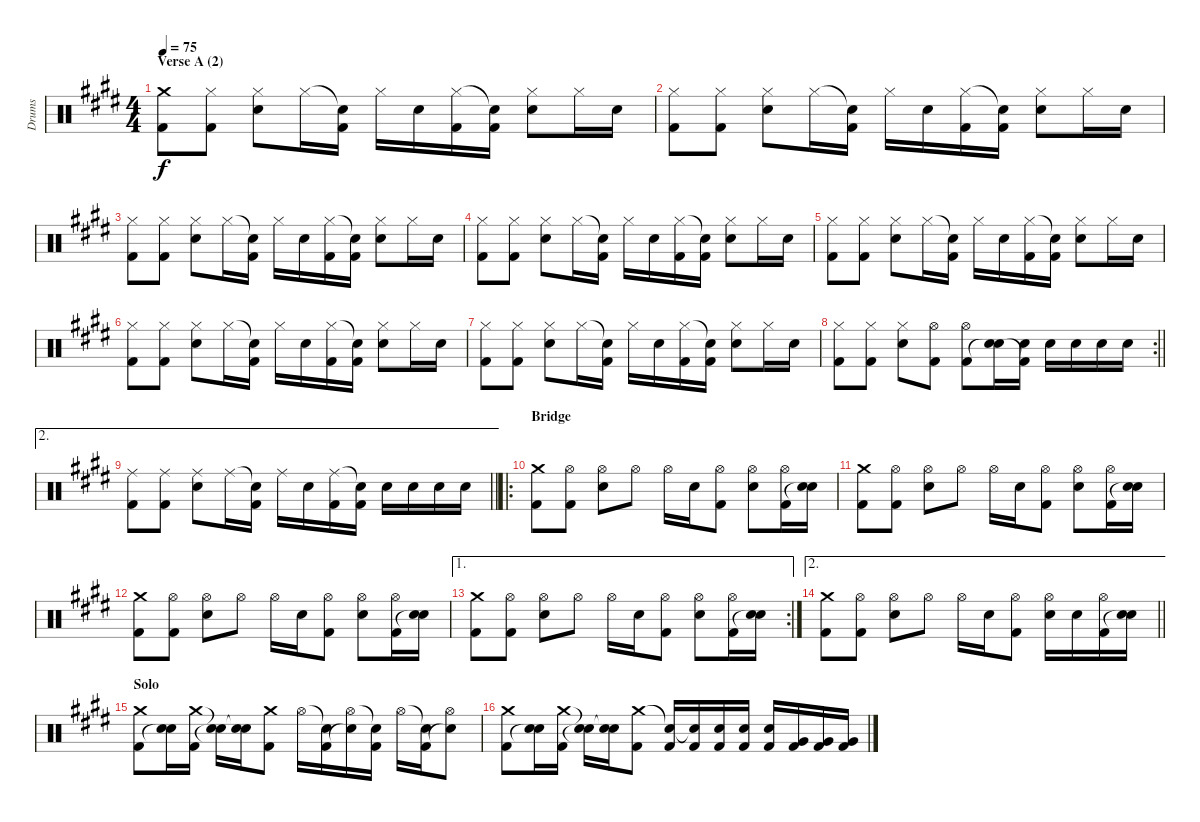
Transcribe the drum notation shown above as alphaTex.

\track ("Drums" "Drums") {instrument percussion}
\staff {score}
\articulation defaults
\ts (4 4)
\section ("" "Verse A (2)")
\tempo 75
\clef neutral
\ks c#minor
("Crash medium (hit)" "Kick (hit) 2").8{dy f} ("Hi-Hat (closed)" "Kick (hit) 2").8 ("Hi-Hat (closed)" "Electric Snare (hit)").8 "Hi-Hat (closed)".16 ("Snare (hit)"{t} "Kick (hit) 2").16 "Hi-Hat (closed)".16 "Electric Snare (hit)".16 ("Hi-Hat (closed)" "Kick (hit) 2").16 ("Snare (hit)"{t} "Kick (hit) 2").16 ("Hi-Hat (closed)" "Electric Snare (hit)").8 "Hi-Hat (closed)".16 "Electric Snare (hit)".16 |
("Hi-Hat (closed)" "Kick (hit) 2").8 ("Hi-Hat (closed)" "Kick (hit) 2").8 ("Hi-Hat (closed)" "Electric Snare (hit)").8 "Hi-Hat (closed)".16 ("Snare (hit)"{t} "Kick (hit) 2").16 "Hi-Hat (closed)".16 "Electric Snare (hit)".16 ("Hi-Hat (closed)" "Kick (hit) 2").16 ("Snare (hit)"{t} "Kick (hit) 2").16 ("Hi-Hat (closed)" "Electric Snare (hit)").8 "Hi-Hat (closed)".16 "Electric Snare (hit)".16 |
("Hi-Hat (closed)" "Kick (hit) 2").8 ("Hi-Hat (closed)" "Kick (hit) 2").8 ("Hi-Hat (closed)" "Electric Snare (hit)").8 "Hi-Hat (closed)".16 ("Snare (hit)"{t} "Kick (hit) 2").16 "Hi-Hat (closed)".16 "Electric Snare (hit)".16 ("Hi-Hat (closed)" "Kick (hit) 2").16 ("Snare (hit)"{t} "Kick (hit) 2").16 ("Hi-Hat (closed)" "Electric Snare (hit)").8 "Hi-Hat (closed)".16 "Electric Snare (hit)".16 |
("Hi-Hat (closed)" "Kick (hit) 2").8 ("Hi-Hat (closed)" "Kick (hit) 2").8 ("Hi-Hat (closed)" "Electric Snare (hit)").8 "Hi-Hat (closed)".16 ("Snare (hit)"{t} "Kick (hit) 2").16 "Hi-Hat (closed)".16 "Electric Snare (hit)".16 ("Hi-Hat (closed)" "Kick (hit) 2").16 ("Snare (hit)"{t} "Kick (hit) 2").16 ("Hi-Hat (closed)" "Electric Snare (hit)").8 "Hi-Hat (closed)".16 "Electric Snare (hit)".16 |
("Hi-Hat (closed)" "Kick (hit) 2").8 ("Hi-Hat (closed)" "Kick (hit) 2").8 ("Hi-Hat (closed)" "Electric Snare (hit)").8 "Hi-Hat (closed)".16 ("Snare (hit)"{t} "Kick (hit) 2").16 "Hi-Hat (closed)".16 "Electric Snare (hit)".16 ("Hi-Hat (closed)" "Kick (hit) 2").16 ("Snare (hit)"{t} "Kick (hit) 2").16 ("Hi-Hat (closed)" "Electric Snare (hit)").8 "Hi-Hat (closed)".16 "Electric Snare (hit)".16 |
("Hi-Hat (closed)" "Kick (hit) 2").8 ("Hi-Hat (closed)" "Kick (hit) 2").8 ("Hi-Hat (closed)" "Electric Snare (hit)").8 "Hi-Hat (closed)".16 ("Snare (hit)"{t} "Kick (hit) 2").16 "Hi-Hat (closed)".16 "Electric Snare (hit)".16 ("Hi-Hat (closed)" "Kick (hit) 2").16 ("Snare (hit)"{t} "Kick (hit) 2").16 ("Hi-Hat (closed)" "Electric Snare (hit)").8 "Hi-Hat (closed)".16 "Electric Snare (hit)".16 |
("Hi-Hat (closed)" "Kick (hit) 2").8 ("Hi-Hat (closed)" "Kick (hit) 2").8 ("Hi-Hat (closed)" "Electric Snare (hit)").8 "Hi-Hat (closed)".16 ("Snare (hit)"{t} "Kick (hit) 2").16 "Hi-Hat (closed)".16 "Electric Snare (hit)".16 ("Hi-Hat (closed)" "Kick (hit) 2").16 ("Snare (hit)"{t} "Kick (hit) 2").16 ("Hi-Hat (closed)" "Electric Snare (hit)").8 "Hi-Hat (closed)".16 "Electric Snare (hit)".16 |
\rc 2
\barLineRight lightlight
("Hi-Hat (closed)" "Kick (hit) 2").8 ("Hi-Hat (closed)" "Kick (hit) 2").8 ("Hi-Hat (closed)" "Electric Snare (hit)").8 ("Hi-Hat (open)" "Kick (hit) 2").8 ("Hi-Hat (open)" "Kick (hit) 2").8 ("Electric Snare (hit)" "Snare (hit)"{t}).16 ("Electric Snare (hit)" "Kick (hit) 2"{t}).16 "Electric Snare (hit)".16 "Electric Snare (hit)".16 "Electric Snare (hit)".16 "Electric Snare (hit)".16 |
\ae 2
\barLineRight lightlight
("Ride (middle)" "Kick (hit) 2").8 ("Ride (middle)" "Kick (hit) 2").8 ("Ride (middle)" "Electric Snare (hit)").8 "Ride (middle)".16 ("Snare (hit)"{t} "Kick (hit) 2").16 "Ride (middle)".16 "Electric Snare (hit)".16 ("Ride (middle)" "Kick (hit) 2").16 ("Snare (hit)"{t} "Kick (hit) 2").16 "Electric Snare (hit)".16 "Electric Snare (hit)".16 "Electric Snare (hit)".16 "Electric Snare (hit)".16 |
\ro
\section ("" "Bridge")
("Crash medium (hit)" "Kick (hit) 2").8 ("Hi-Hat (open)" "Kick (hit) 2").8 ("Hi-Hat (open)" "Electric Snare (hit)").8 "Hi-Hat (open)".8 "Hi-Hat (open)".16 "Electric Snare (hit)".16 ("Hi-Hat (open)" "Kick (hit) 2").8 ("Hi-Hat (open)" "Electric Snare (hit)").8 ("Hi-Hat (open)" "Kick (hit) 2").16 ("Electric Snare (hit)" "Snare (hit)"{t}).16 |
("Crash medium (hit)" "Kick (hit) 2").8 ("Hi-Hat (open)" "Kick (hit) 2").8 ("Hi-Hat (open)" "Electric Snare (hit)").8 "Hi-Hat (open)".8 "Hi-Hat (open)".16 "Electric Snare (hit)".16 ("Hi-Hat (open)" "Kick (hit) 2").8 ("Hi-Hat (open)" "Electric Snare (hit)").8 ("Hi-Hat (open)" "Kick (hit) 2").16 ("Electric Snare (hit)" "Snare (hit)"{t}).16 |
("Crash medium (hit)" "Kick (hit) 2").8 ("Hi-Hat (open)" "Kick (hit) 2").8 ("Hi-Hat (open)" "Electric Snare (hit)").8 "Hi-Hat (open)".8 "Hi-Hat (open)".16 "Electric Snare (hit)".16 ("Hi-Hat (open)" "Kick (hit) 2").8 ("Hi-Hat (open)" "Electric Snare (hit)").8 ("Hi-Hat (open)" "Kick (hit) 2").16 ("Electric Snare (hit)" "Snare (hit)"{t}).16 |
\ae 1
\rc 2
("Crash medium (hit)" "Kick (hit) 2").8 ("Hi-Hat (open)" "Kick (hit) 2").8 ("Hi-Hat (open)" "Electric Snare (hit)").8 "Hi-Hat (open)".8 "Hi-Hat (open)".16 "Electric Snare (hit)".16 ("Hi-Hat (open)" "Kick (hit) 2").8 ("Hi-Hat (open)" "Electric Snare (hit)").8 ("Hi-Hat (open)" "Kick (hit) 2").16 ("Electric Snare (hit)" "Snare (hit)"{t}).16 |
\ae 2
\barLineRight lightlight
("Crash medium (hit)" "Kick (hit) 2").8 ("Hi-Hat (open)" "Kick (hit) 2").8 ("Hi-Hat (open)" "Electric Snare (hit)").8 "Hi-Hat (open)".8 "Hi-Hat (open)".16 "Electric Snare (hit)".16 ("Hi-Hat (open)" "Kick (hit) 2").8 ("Hi-Hat (open)" "Electric Snare (hit)").16 "Electric Snare (hit)".16 ("Hi-Hat (open)" "Kick (hit) 2").16 ("Electric Snare (hit)" "Snare (hit)"{t}).16 |
\section ("" "Solo")
("Crash medium (hit)" "Kick (hit) 2").8 ("Electric Snare (hit)" "Snare (hit)"{t}).16 ("Crash medium (hit)" "Kick (hit) 2").16 ("Snare (hit)"{t} "Snare (hit)"{t}).16 ("Electric Snare (hit)" "Snare (hit)"{t}).16 ("Crash medium (hit)" "Kick (hit) 2").8 "Hi-Hat (open)".16 ("Snare (hit)"{t} "Kick (hit) 2").16 ("Hi-Hat (open)" "Snare (hit)"{t}).16 ("Snare (hit)"{t} "Kick (hit) 2").16 "Hi-Hat (open)".16 ("Snare (hit)"{t} "Kick (hit) 2").16 ("Hi-Hat (open)" "Snare (hit)"{t}).8 |
("Crash medium (hit)" "Kick (hit) 2").8 ("Electric Snare (hit)" "Snare (hit)"{t}).16 ("Crash medium (hit)" "Kick (hit) 2").16 ("Snare (hit)"{t} "Snare (hit)"{t}).16 ("Electric Snare (hit)" "Snare (hit)"{t}).16 ("Crash medium (hit)" "Kick (hit) 2").8 ("Snare (hit)"{t} "Kick (hit) 2").16 ("Snare (hit)"{t} "Kick (hit) 2").16 ("Electric Snare (hit)" "Kick (hit) 2").16 ("Electric Snare (hit)" "Kick (hit) 2").16 ("Electric Snare (hit)" "Kick (hit) 2").16 ("Very Low Tom (hit)" "Kick (hit) 2").16 ("Very Low Tom (hit)" "Kick (hit) 2").16 ("Very Low Tom (hit)" "Kick (hit) 2").16
